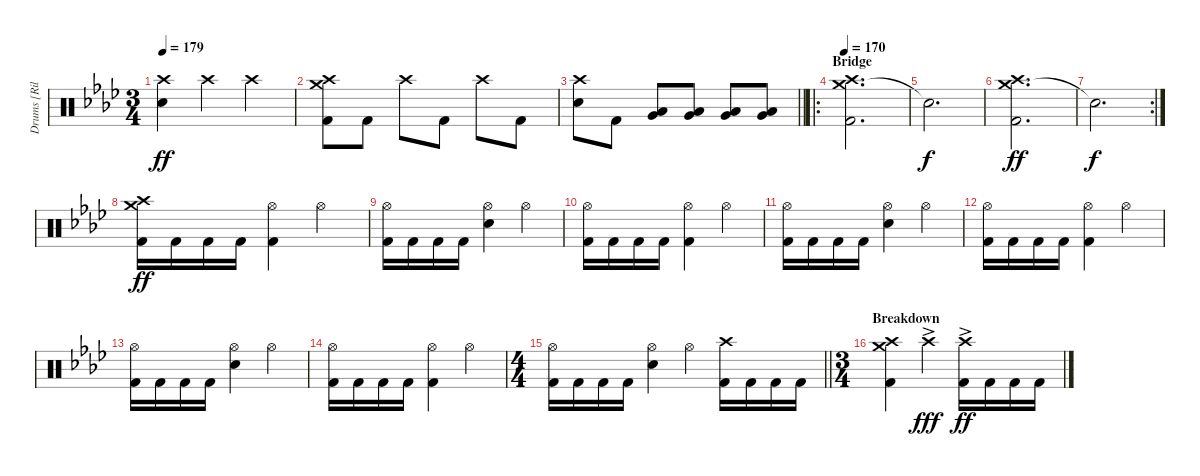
\track ("Drums [Riley]" "Drums [Ril") {instrument percussion}
\staff {score}
\articulation defaults
\ts (3 4)
\tempo 179
\clef neutral
\ks ab
("Crash high (hit)" "Electric Snare (hit)").4{dy ff} "Crash high (hit)".4 "Crash high (hit)".4 |
("Crash medium (hit)" "Crash high (hit)" "Kick (hit) 2").8 "Kick (hit) 2".8 "Crash high (hit)".8 "Kick (hit) 2".8 "Crash high (hit)".8 "Kick (hit) 2".8 |
\barLineRight lightlight
("Crash high (hit)" "Electric Snare (hit)").8 "Kick (hit) 2".8 ("Very Low Tom (hit)" "Low Floor Tom (hit)").8{bu 60} ("Very Low Tom (hit)" "Low Floor Tom (hit)").8{bu 60} ("Very Low Tom (hit)" "Low Floor Tom (hit)").8{bu 60} ("Very Low Tom (hit)" "Low Floor Tom (hit)").8{bu 60} |
\ro
\section ("" "Bridge")
\tempo 170
("Crash medium (hit)" "Crash high (hit)" "Kick (hit) 2").2{d} |
"Snare (hit)"{t}.2{d dy f} |
("Crash medium (hit)" "Crash high (hit)" "Kick (hit) 2").2{d dy ff} |
\rc 2 "Snare (hit)"{t}.2{d dy f}
|
("Crash medium (hit)" "Crash high (hit)" "Kick (hit) 2").16{dy ff} "Kick (hit) 2".16 "Kick (hit) 2".16 "Kick (hit) 2".16 ("Hi-Hat (open)" "Kick (hit) 2").4 "Hi-Hat (open)".4 |
("Hi-Hat (open)" "Kick (hit) 2").16 "Kick (hit) 2".16 "Kick (hit) 2".16 "Kick (hit) 2".16 ("Hi-Hat (open)" "Electric Snare (hit)").4 "Hi-Hat (open)".4 |
("Hi-Hat (open)" "Kick (hit) 2").16 "Kick (hit) 2".16 "Kick (hit) 2".16 "Kick (hit) 2".16 ("Hi-Hat (open)" "Kick (hit) 2").4 "Hi-Hat (open)".4 |
("Hi-Hat (open)" "Kick (hit) 2").16 "Kick (hit) 2".16 "Kick (hit) 2".16 "Kick (hit) 2".16 ("Hi-Hat (open)" "Electric Snare (hit)").4 "Hi-Hat (open)".4 |
("Hi-Hat (open)" "Kick (hit) 2").16 "Kick (hit) 2".16 "Kick (hit) 2".16 "Kick (hit) 2".16 ("Hi-Hat (open)" "Kick (hit) 2").4 "Hi-Hat (open)".4 |
("Hi-Hat (open)" "Kick (hit) 2").16 "Kick (hit) 2".16 "Kick (hit) 2".16 "Kick (hit) 2".16 ("Hi-Hat (open)" "Electric Snare (hit)").4 "Hi-Hat (open)".4 |
("Hi-Hat (open)" "Kick (hit) 2").16 "Kick (hit) 2".16 "Kick (hit) 2".16 "Kick (hit) 2".16 ("Hi-Hat (open)" "Kick (hit) 2").4 "Hi-Hat (open)".4 |
\ts (4 4)
\barLineRight lightlight
("Hi-Hat (open)" "Kick (hit) 2").16 "Kick (hit) 2".16 "Kick (hit) 2".16 "Kick (hit) 2".16 ("Hi-Hat (open)" "Electric Snare (hit)").4 "Hi-Hat (open)".4 ("Crash high (hit)" "Kick (hit) 2").16 "Kick (hit) 2".16 "Kick (hit) 2".16 "Kick (hit) 2".16 |
\ts (3 4)
\section ("" "Breakdown")
("Crash medium (hit)" "Crash high (hit)" "Kick (hit) 2").4 "Crash high (hit)"{ac}.4{dy fff} ("Crash high (hit)"{ac} "Kick (hit) 2").16{dy ff} "Kick (hit) 2".16 "Kick (hit) 2".16 "Kick (hit) 2".16
